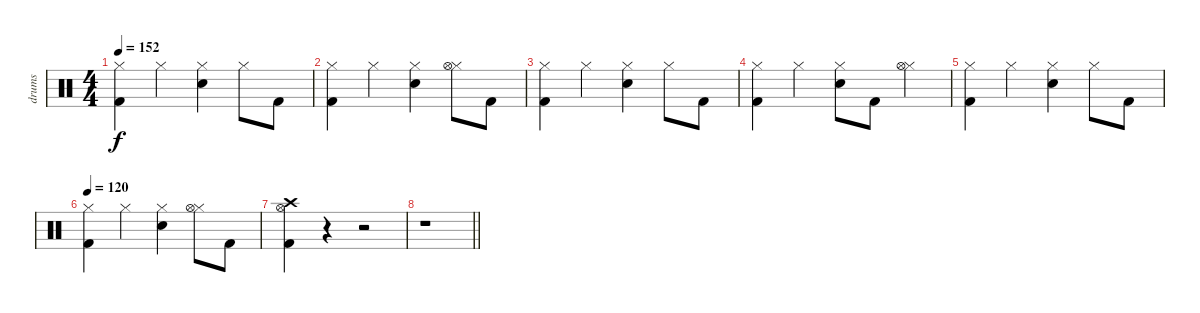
\track ("drums" "drums") {instrument percussion}
\staff {score}
\articulation defaults
\ts (4 4)
\tempo 152
\clef neutral
\ks c
("Hi-Hat (closed)" "Kick (hit) 2").4{dy f} "Hi-Hat (closed)".4 ("Hi-Hat (closed)" "Electric Snare (hit)").4 "Hi-Hat (closed)".8 "Kick (hit) 2".8 |
("Hi-Hat (closed)" "Kick (hit) 2").4 "Hi-Hat (closed)".4 ("Hi-Hat (closed)" "Electric Snare (hit)").4 ("Hi-Hat (closed)" "Hi-Hat (open)").8 "Kick (hit) 2".8 |
("Hi-Hat (closed)" "Kick (hit) 2").4 "Hi-Hat (closed)".4 ("Hi-Hat (closed)" "Electric Snare (hit)").4 "Hi-Hat (closed)".8 "Kick (hit) 2".8 |
("Hi-Hat (closed)" "Kick (hit) 2").4 "Hi-Hat (closed)".4 ("Hi-Hat (closed)" "Electric Snare (hit)").8 "Kick (hit) 2".8 ("Hi-Hat (closed)" "Hi-Hat (open)").4 |
("Hi-Hat (closed)" "Kick (hit) 2").4 "Hi-Hat (closed)".4 ("Hi-Hat (closed)" "Electric Snare (hit)").4 "Hi-Hat (closed)".8 "Kick (hit) 2".8 |
\tempo 120
("Hi-Hat (closed)" "Kick (hit) 2").4 "Hi-Hat (closed)".4 ("Hi-Hat (closed)" "Electric Snare (hit)").4 ("Hi-Hat (closed)" "Hi-Hat (open)").8 "Kick (hit) 2".8 |
("Crash high (hit)" "Hi-Hat (open)" "Kick (hit) 2").4 r.4 r.2 |
\barLineRight lightlight
r.1
